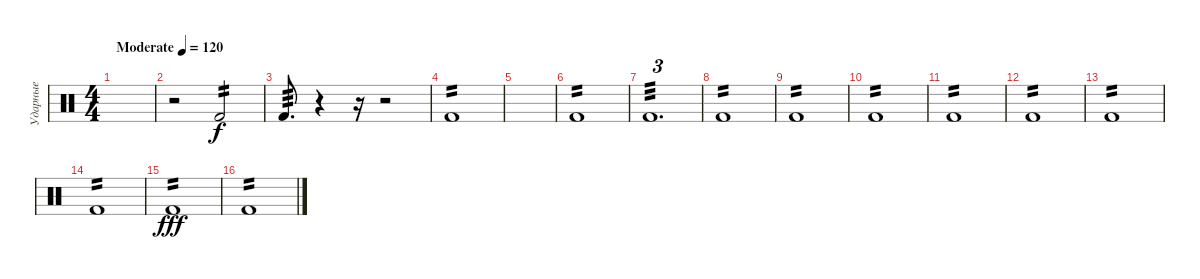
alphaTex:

\track ("Ударные" "Ударные") {instrument percussion}
\staff {score}
\articulation defaults
\ts (4 4)
\tempo (120 "Moderate")
\clef neutral
\ks c
|
r.2 "Kick (hit) 2".2{tp 2} |
"Kick (hit) 2".8{d tp 3} r.4 r.16 r.2 |
"Kick (hit) 2".1{tp 2} |
|
"Kick (hit) 2".1{tp 2} |
"Kick (hit) 2".1{d tu (3 2) tp 3} |
"Kick (hit) 2".1{tp 2} |
"Kick (hit) 2".1{tp 2} |
"Kick (hit) 2".1{tp 2} |
"Kick (hit) 2".1{tp 2} |
"Kick (hit) 2".1{tp 2} |
"Kick (hit) 2".1{tp 2} |
"Kick (hit) 2".1{tp 2} |
"Kick (hit) 2".1{tp 2 dy fff} |
"Kick (hit) 2".1{tp 2}
